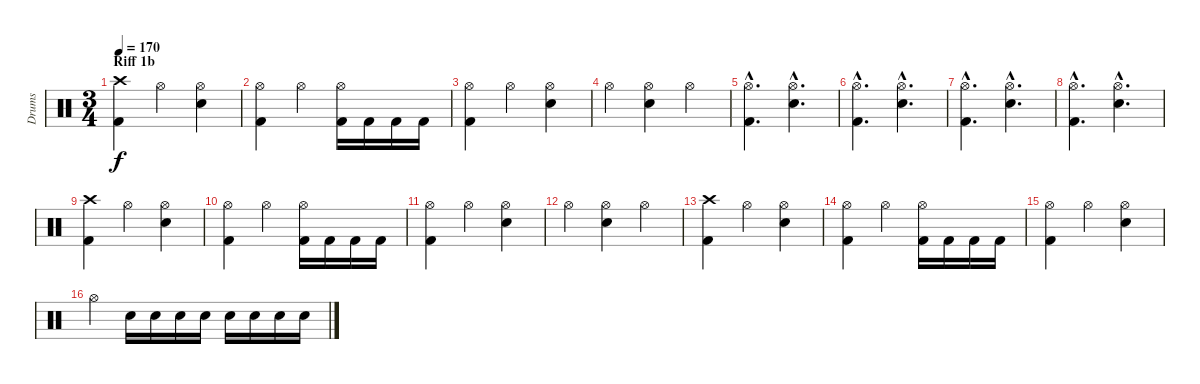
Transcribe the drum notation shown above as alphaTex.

\track ("Drums" "Drums") {instrument percussion}
\staff {score}
\articulation defaults
\ts (3 4)
\section ("" "Riff 1b")
\tempo 170
\clef neutral
\ks c
("Crash high (hit)" "Kick (hit) 2").4{dy f} "Hi-Hat (open)".4 ("Hi-Hat (open)" "Electric Snare (hit)").4 |
("Hi-Hat (open)" "Kick (hit) 2").4 "Hi-Hat (open)".4 ("Hi-Hat (open)" "Kick (hit) 2").16 "Kick (hit) 2".16 "Kick (hit) 2".16 "Kick (hit) 2".16 |
("Hi-Hat (open)" "Kick (hit) 2").4 "Hi-Hat (open)".4 ("Hi-Hat (open)" "Electric Snare (hit)").4 |
"Hi-Hat (open)".4 ("Hi-Hat (open)" "Electric Snare (hit)").4 "Hi-Hat (open)".4 |
("Hi-Hat (open)"{hac} "Kick (hit) 2"{hac}).4{d} ("Hi-Hat (open)"{hac} "Electric Snare (hit)"{hac}).4{d} |
("Hi-Hat (open)"{hac} "Kick (hit) 2"{hac}).4{d} ("Hi-Hat (open)"{hac} "Electric Snare (hit)"{hac}).4{d} |
("Hi-Hat (open)"{hac} "Kick (hit) 2"{hac}).4{d} ("Hi-Hat (open)"{hac} "Electric Snare (hit)"{hac}).4{d} |
("Hi-Hat (open)"{hac} "Kick (hit) 2"{hac}).4{d} ("Hi-Hat (open)"{hac} "Electric Snare (hit)"{hac}).4{d} |
("Crash high (hit)" "Kick (hit) 2").4 "Hi-Hat (open)".4 ("Hi-Hat (open)" "Electric Snare (hit)").4 |
("Hi-Hat (open)" "Kick (hit) 2").4 "Hi-Hat (open)".4 ("Hi-Hat (open)" "Kick (hit) 2").16 "Kick (hit) 2".16 "Kick (hit) 2".16 "Kick (hit) 2".16 |
("Hi-Hat (open)" "Kick (hit) 2").4 "Hi-Hat (open)".4 ("Hi-Hat (open)" "Electric Snare (hit)").4 |
"Hi-Hat (open)".4 ("Hi-Hat (open)" "Electric Snare (hit)").4 "Hi-Hat (open)".4 |
("Crash high (hit)" "Kick (hit) 2").4 "Hi-Hat (open)".4 ("Hi-Hat (open)" "Electric Snare (hit)").4 |
("Hi-Hat (open)" "Kick (hit) 2").4 "Hi-Hat (open)".4 ("Hi-Hat (open)" "Kick (hit) 2").16 "Kick (hit) 2".16 "Kick (hit) 2".16 "Kick (hit) 2".16 |
("Hi-Hat (open)" "Kick (hit) 2").4 "Hi-Hat (open)".4 ("Hi-Hat (open)" "Electric Snare (hit)").4 |
"Hi-Hat (open)".4 "Electric Snare (hit)".16 "Electric Snare (hit)".16 "Electric Snare (hit)".16 "Electric Snare (hit)".16 "Electric Snare (hit)".16 "Electric Snare (hit)".16 "Electric Snare (hit)".16 "Electric Snare (hit)".16
